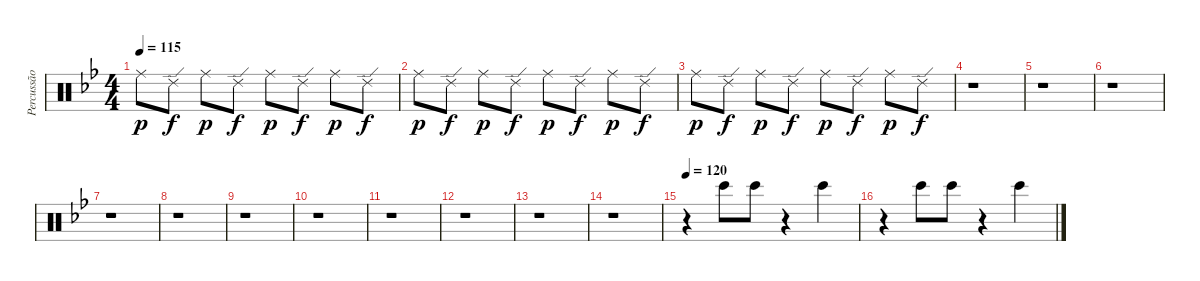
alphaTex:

\track ("Percussão" "Percussão") {instrument percussion}
\staff {score}
\articulation defaults
\ts (4 4)
\tempo 115
\clef neutral
\ks bb "Ride (middle)".8{dy p} "Ride (edge) 2".8{dy f} "Ride (middle)".8{dy p} "Ride (edge) 2".8{dy f} "Ride (middle)".8{dy p} "Ride (edge) 2".8{dy f} "Ride (middle)".8{dy p} "Ride (edge) 2".8{dy f}
|
"Ride (middle)".8{dy p} "Ride (edge) 2".8{dy f} "Ride (middle)".8{dy p} "Ride (edge) 2".8{dy f} "Ride (middle)".8{dy p} "Ride (edge) 2".8{dy f} "Ride (middle)".8{dy p} "Ride (edge) 2".8{dy f} |
"Ride (middle)".8{dy p} "Ride (edge) 2".8{dy f} "Ride (middle)".8{dy p} "Ride (edge) 2".8{dy f} "Ride (middle)".8{dy p} "Ride (edge) 2".8{dy f} "Ride (middle)".8{dy p} "Ride (edge) 2".8{dy f} |
r.1 |
r.1 |
r.1 |
r.1 |
r.1 |
r.1 |
r.1 |
r.1 |
r.1 |
r.1 |
r.1 |
\tempo 120
r.4 "Bongo High (hit)".8 "Bongo High (hit)".8 r.4 "Bongo High (hit)".4 |
r.4 "Bongo High (hit)".8 "Bongo High (hit)".8 r.4 "Bongo High (hit)".4
